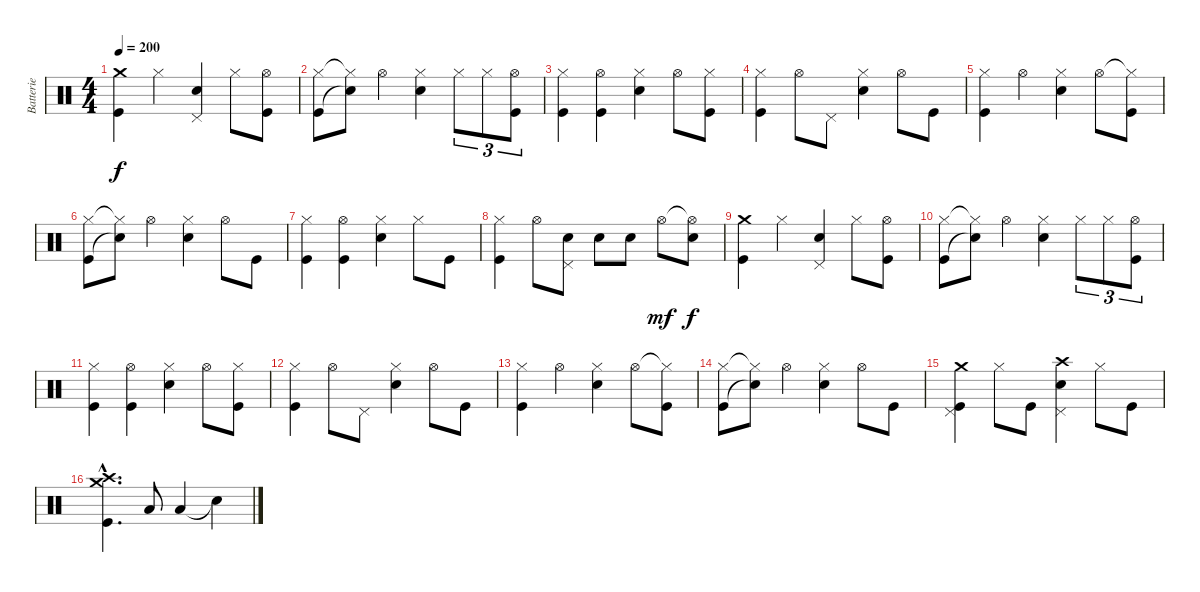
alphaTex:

\track ("Batterie" "Batterie") {instrument percussion}
\staff {score}
\articulation defaults
\ts (4 4)
\tempo 200
\clef neutral
\ks c
("Crash medium (hit)" "Kick (hit)").4{dy f} "Hi-Hat (closed)".4 ("Pedal Hi-Hat (hit)" "Snare (hit) 2").4 "Hi-Hat (closed)".8 ("Hi-Hat (open)" "Kick (hit)").8 |
("Hi-Hat (closed)" "Kick (hit)").8 ("Hi-Hat (closed)"{t} "Snare (hit)"{t}).8 "Hi-Hat (open)".4 ("Hi-Hat (closed)" "Snare (hit) 2").4 "Hi-Hat (closed)".8{tu (3 2)} "Hi-Hat (closed)".8{tu (3 2)} ("Hi-Hat (open)" "Kick (hit)").8{tu (3 2)} |
("Hi-Hat (closed)" "Kick (hit)").4 ("Hi-Hat (open)" "Kick (hit)").4 ("Hi-Hat (closed)" "Snare (hit) 2").4 "Hi-Hat (open)".8 ("Hi-Hat (closed)" "Kick (hit)").8 |
("Hi-Hat (closed)" "Kick (hit)").4 "Hi-Hat (open)".8 "Pedal Hi-Hat (hit)".8 ("Hi-Hat (closed)" "Snare (hit) 2").4 "Hi-Hat (open)".8 "Kick (hit)".8 |
("Hi-Hat (closed)" "Kick (hit)").4 "Hi-Hat (open)".4 ("Hi-Hat (closed)" "Snare (hit) 2").4 "Hi-Hat (open)".8 ("Hi-Hat (closed)"{t} "Kick (hit)").8 |
("Hi-Hat (closed)" "Kick (hit)").8 ("Hi-Hat (closed)"{t} "Snare (hit)"{t}).8 "Hi-Hat (open)".4 ("Hi-Hat (closed)" "Snare (hit) 2").4 "Hi-Hat (open)".8 "Kick (hit)".8 |
("Hi-Hat (closed)" "Kick (hit)").4 ("Hi-Hat (open)" "Kick (hit)").4 ("Hi-Hat (closed)" "Snare (hit) 2").4 "Hi-Hat (closed)".8 "Kick (hit)".8 |
("Hi-Hat (closed)" "Kick (hit)").4 "Hi-Hat (open)".8 ("Pedal Hi-Hat (hit)" "Snare (hit) 2").8 "Snare (hit) 2".8 "Snare (hit) 2".8 "Hi-Hat (open)".8{dy mf} ("Hi-Hat (open)"{t} "Snare (hit) 2").8{dy f} |
("Crash medium (hit)" "Kick (hit)").4 "Hi-Hat (closed)".4 ("Pedal Hi-Hat (hit)" "Snare (hit) 2").4 "Hi-Hat (closed)".8 ("Hi-Hat (open)" "Kick (hit)").8 |
("Hi-Hat (closed)" "Kick (hit)").8 ("Hi-Hat (closed)"{t} "Snare (hit)"{t}).8 "Hi-Hat (open)".4 ("Hi-Hat (closed)" "Snare (hit) 2").4 "Hi-Hat (closed)".8{tu (3 2)} "Hi-Hat (closed)".8{tu (3 2)} ("Hi-Hat (open)" "Kick (hit)").8{tu (3 2)} |
("Hi-Hat (closed)" "Kick (hit)").4 ("Hi-Hat (open)" "Kick (hit)").4 ("Hi-Hat (closed)" "Snare (hit) 2").4 "Hi-Hat (open)".8 ("Hi-Hat (closed)" "Kick (hit)").8 |
("Hi-Hat (closed)" "Kick (hit)").4 "Hi-Hat (open)".8 "Pedal Hi-Hat (hit)".8 ("Hi-Hat (closed)" "Snare (hit) 2").4 "Hi-Hat (open)".8 "Kick (hit)".8 |
("Hi-Hat (closed)" "Kick (hit)").4 "Hi-Hat (open)".4 ("Hi-Hat (closed)" "Snare (hit) 2").4 "Hi-Hat (open)".8 ("Hi-Hat (closed)"{t} "Kick (hit)").8 |
("Hi-Hat (closed)" "Kick (hit)").8 ("Hi-Hat (closed)"{t} "Snare (hit)"{t}).8 "Hi-Hat (open)".4 ("Hi-Hat (closed)" "Snare (hit) 2").4 "Hi-Hat (open)".8 "Kick (hit)".8 |
("Crash medium (hit)" "Pedal Hi-Hat (hit)" "Kick (hit)").4 "Hi-Hat (closed)".8 "Kick (hit)".8 ("Crash high (hit)" "Pedal Hi-Hat (hit)" "Snare (hit) 2").4 "Hi-Hat (closed)".8 "Kick (hit)".8 |
("Crash medium (hit)"{hac} "Crash high (hit)"{hac} "Kick (hit)"{hac}).4{d} "Low Tom (hit)".8 "Low Floor Tom (hit)".4 "Snare (hit)"{t}.4
